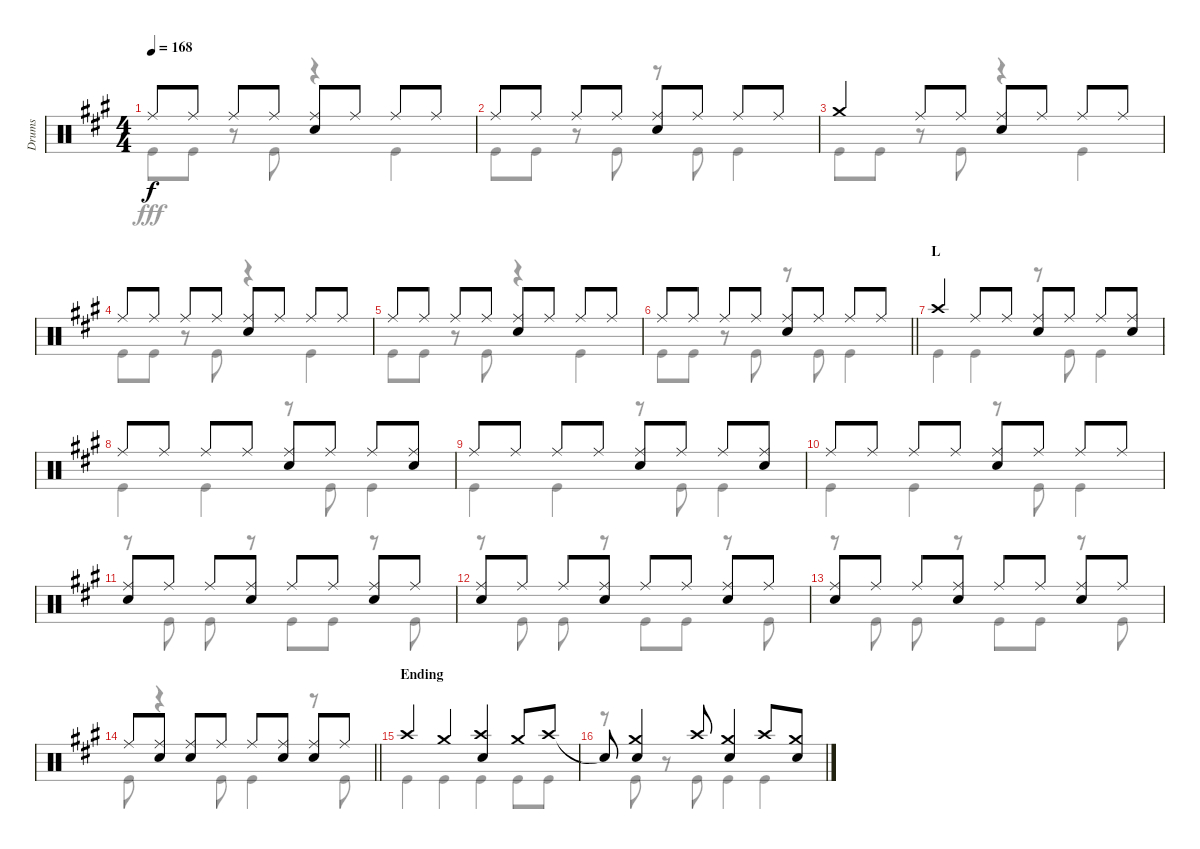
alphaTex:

\track ("Drums" "Drums") {instrument percussion}
\staff {score}
\articulation defaults
\voice
\ts (4 4)
\tempo 168
\clef neutral
\ks a "Ride (middle)".8{dy f} "Ride (middle)".8 "Ride (middle)".8 "Ride (middle)".8
("Ride (middle)" "Snare (hit) 2").8 "Ride (middle)".8 "Ride (middle)".8 "Ride (middle)".8 |
"Ride (middle)".8 "Ride (middle)".8 "Ride (middle)".8 "Ride (middle)".8 ("Ride (middle)" "Snare (hit) 2").8 "Ride (middle)".8 "Ride (middle)".8 "Ride (middle)".8 |
"Crash medium (hit)".4 "Ride (middle)".8 "Ride (middle)".8 ("Ride (middle)" "Snare (hit) 2").8 "Ride (middle)".8 "Ride (middle)".8 "Ride (middle)".8 |
"Ride (middle)".8 "Ride (middle)".8 "Ride (middle)".8 "Ride (middle)".8 ("Ride (middle)" "Snare (hit) 2").8 "Ride (middle)".8 "Ride (middle)".8 "Ride (middle)".8 |
"Ride (middle)".8 "Ride (middle)".8 "Ride (middle)".8 "Ride (middle)".8 ("Ride (middle)" "Snare (hit) 2").8 "Ride (middle)".8 "Ride (middle)".8 "Ride (middle)".8 |
\barLineRight lightlight "Ride (middle)".8 "Ride (middle)".8 "Ride (middle)".8 "Ride (middle)".8
("Ride (middle)" "Snare (hit) 2").8 "Ride (middle)".8 "Ride (middle)".8 "Ride (middle)".8 |
\section ("" "L")
"Crash high (hit)".4 "Ride (middle)".8 "Ride (middle)".8 ("Ride (middle)" "Snare (hit) 2").8 "Ride (middle)".8 "Ride (middle)".8 ("Ride (middle)" "Snare (hit) 2").8 |
"Ride (middle)".8 "Ride (middle)".8 "Ride (middle)".8 "Ride (middle)".8 ("Ride (middle)" "Snare (hit) 2").8 "Ride (middle)".8 "Ride (middle)".8 ("Ride (middle)" "Snare (hit) 2").8 |
"Ride (middle)".8 "Ride (middle)".8 "Ride (middle)".8 "Ride (middle)".8 ("Ride (middle)" "Snare (hit) 2").8 "Ride (middle)".8 "Ride (middle)".8 ("Ride (middle)" "Snare (hit) 2").8 |
"Ride (middle)".8 "Ride (middle)".8 "Ride (middle)".8 "Ride (middle)".8 ("Ride (middle)" "Snare (hit) 2").8 "Ride (middle)".8 "Ride (middle)".8 "Ride (middle)".8 |
("Ride (middle)" "Snare (hit) 2").8 "Ride (middle)".8 "Ride (middle)".8 ("Ride (middle)" "Snare (hit) 2").8 "Ride (middle)".8 "Ride (middle)".8 ("Ride (middle)" "Snare (hit) 2").8 "Ride (middle)".8 |
("Ride (middle)" "Snare (hit) 2").8 "Ride (middle)".8 "Ride (middle)".8 ("Ride (middle)" "Snare (hit) 2").8 "Ride (middle)".8 "Ride (middle)".8 ("Ride (middle)" "Snare (hit) 2").8 "Ride (middle)".8 |
("Ride (middle)" "Snare (hit) 2").8 "Ride (middle)".8 "Ride (middle)".8 ("Ride (middle)" "Snare (hit) 2").8 "Ride (middle)".8 "Ride (middle)".8 ("Ride (middle)" "Snare (hit) 2").8 "Ride (middle)".8 |
\barLineRight lightlight "Ride (middle)".8
("Ride (middle)" "Snare (hit) 2").8 ("Ride (middle)" "Snare (hit) 2").8 "Ride (middle)".8 "Ride (middle)".8 ("Ride (middle)" "Snare (hit) 2").8 ("Ride (middle)" "Snare (hit) 2").8 "Ride (middle)".8 |
\section ("" "Ending")
"Crash high (hit)".4 "Crash medium (hit)".4 ("Crash high (hit)" "Snare (hit) 2").4 "Crash medium (hit)".8 "Crash high (hit)".8 |
"Snare (hit)"{t}.8 ("Crash medium (hit)" "Snare (hit) 2").4 "Crash high (hit)".8 ("Crash medium (hit)" "Snare (hit) 2").4 "Crash high (hit)".8 ("Crash medium (hit)" "Snare (hit) 2").8
\voice
\clef neutral
\ottava regular
\simile none
\ks a "Kick (hit)".8{dy fff} "Kick (hit)".8
r.8 "Kick (hit)".8 r.4 "Kick (hit)".4 |
"Kick (hit)".8 "Kick (hit)".8 r.8 "Kick (hit)".8 r.8 "Kick (hit)".8 "Kick (hit)".4 |
"Kick (hit)".8 "Kick (hit)".8 r.8 "Kick (hit)".8 r.4 "Kick (hit)".4 |
"Kick (hit)".8 "Kick (hit)".8 r.8 "Kick (hit)".8 r.4 "Kick (hit)".4 |
"Kick (hit)".8 "Kick (hit)".8 r.8 "Kick (hit)".8 r.4 "Kick (hit)".4 |
\barLineRight lightlight "Kick (hit)".8 "Kick (hit)".8
r.8 "Kick (hit)".8 r.8 "Kick (hit)".8 "Kick (hit)".4 |
"Kick (hit)".4 "Kick (hit)".4 r.8 "Kick (hit)".8 "Kick (hit)".4 |
"Kick (hit)".4 "Kick (hit)".4 r.8 "Kick (hit)".8 "Kick (hit)".4 |
"Kick (hit)".4 "Kick (hit)".4 r.8 "Kick (hit)".8 "Kick (hit)".4 |
"Kick (hit)".4 "Kick (hit)".4 r.8 "Kick (hit)".8 "Kick (hit)".4 |
r.8 "Kick (hit)".8 "Kick (hit)".8 r.8 "Kick (hit)".8 "Kick (hit)".8 r.8 "Kick (hit)".8 |
r.8 "Kick (hit)".8 "Kick (hit)".8 r.8 "Kick (hit)".8 "Kick (hit)".8 r.8 "Kick (hit)".8 |
r.8 "Kick (hit)".8 "Kick (hit)".8 r.8 "Kick (hit)".8 "Kick (hit)".8 r.8 "Kick (hit)".8 |
\barLineRight lightlight "Kick (hit)".8
r.4 "Kick (hit)".8 "Kick (hit)".4 r.8 "Kick (hit)".8 |
"Kick (hit)".4 "Kick (hit)".4 "Kick (hit)".4 "Kick (hit)".8 "Kick (hit)".8 |
r.8 "Kick (hit)".8 r.8 "Kick (hit)".8 "Kick (hit)".4 "Kick (hit)".4
